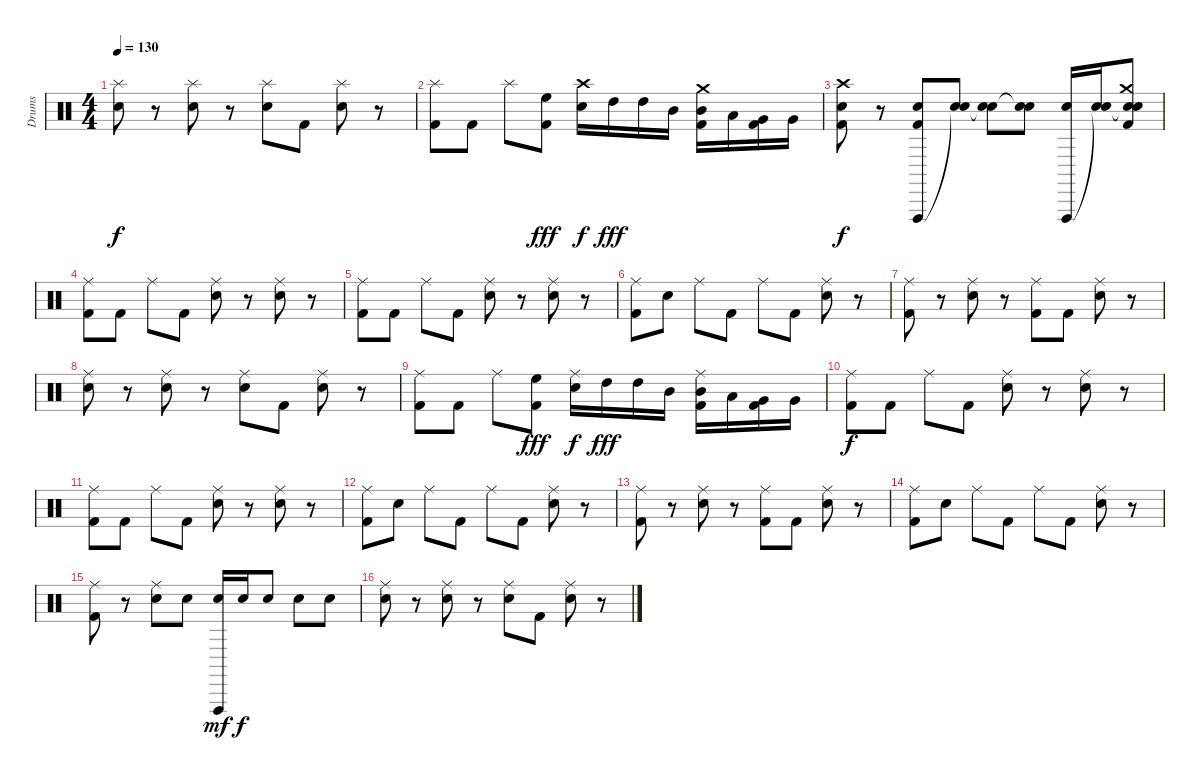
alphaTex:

\track ("Drums" "Drums") {instrument percussion}
\staff {score}
\articulation defaults
\ts (4 4)
\tempo 130
\clef neutral
\ks c
("Splash (hit)" "Snare (hit) 2").8{dy f} r.8 ("Splash (hit)" "Snare (hit) 2").8 r.8 ("Splash (hit)" "Snare (hit) 2").8 "Kick (hit) 2".8 ("Splash (hit)" "Snare (hit) 2").8 r.8 |
("Splash (hit)" "Kick (hit) 2").8 "Kick (hit) 2".8 "Splash (hit)".8 ("High Floor Tom (hit)" "Kick (hit) 2").8{dy fff} ("Crash high (hit)" "Snare (hit) 2").16{dy f} "High Tom (hit)".16{dy fff} "High Tom (hit)".16 "Mid Tom (hit)".16 ("Crash medium (hit)" "Mid Tom (hit)" "Kick (hit) 2").16 "Low Tom (hit)".16 ("Very Low Tom (hit)" "Kick (hit) 2").16 "Very Low Tom (hit)".16 |
("Crash high (hit)" "Snare (hit) 2" "Kick (hit) 2").8{dy f} r.8 ("Vibraslap (hit)" "Snare (hit) 2" "Kick (hit) 2").8 ("Snare (hit)"{t} "Snare (hit) 2").8 ("Snare (hit)"{t} "Snare (hit) 2").8 ("Snare (hit)"{t} "Snare (hit) 2").8 ("Vibraslap (hit)" "Snare (hit) 2").16 ("Snare (hit)"{t} "Snare (hit) 2").16 ("Crash medium (hit)" "Snare (hit)"{t} "Snare (hit) 2" "Kick (hit) 2").8 |
("Ride (middle)" "Kick (hit) 2").8 "Kick (hit) 2".8 "Ride (middle)".8 "Kick (hit) 2".8 ("Ride (middle)" "Snare (hit) 2").8 r.8 ("Ride (middle)" "Snare (hit) 2").8 r.8 |
("Ride (middle)" "Kick (hit) 2").8 "Kick (hit) 2".8 "Ride (middle)".8 "Kick (hit) 2".8 ("Ride (middle)" "Snare (hit) 2").8 r.8 ("Ride (middle)" "Snare (hit) 2").8 r.8 |
("Ride (middle)" "Kick (hit) 2").8 "Snare (hit) 2".8 "Ride (middle)".8 "Kick (hit) 2".8 "Ride (middle)".8 "Kick (hit) 2".8 ("Ride (middle)" "Snare (hit) 2").8 r.8 |
("Ride (middle)" "Kick (hit) 2").8 r.8 ("Ride (middle)" "Snare (hit) 2").8 r.8 ("Ride (middle)" "Kick (hit) 2").8 "Kick (hit) 2".8 ("Ride (middle)" "Snare (hit) 2").8 r.8 |
("Ride (middle)" "Snare (hit) 2").8 r.8 ("Ride (middle)" "Snare (hit) 2").8 r.8 ("Ride (middle)" "Snare (hit) 2").8 "Kick (hit) 2".8 ("Ride (middle)" "Snare (hit) 2").8 r.8 |
("Ride (middle)" "Kick (hit) 2").8 "Kick (hit) 2".8 "Ride (middle)".8 ("High Floor Tom (hit)" "Kick (hit) 2").8{dy fff} ("Ride (middle)" "Snare (hit) 2").16{dy f} "High Tom (hit)".16{dy fff} "High Tom (hit)".16 "Mid Tom (hit)".16 ("Ride (middle)" "Mid Tom (hit)" "Kick (hit) 2").16 "Low Tom (hit)".16 ("Very Low Tom (hit)" "Kick (hit) 2").16 "Very Low Tom (hit)".16 |
("Ride (middle)" "Kick (hit) 2").8{dy f} "Kick (hit) 2".8 "Ride (middle)".8 "Kick (hit) 2".8 ("Ride (middle)" "Snare (hit) 2").8 r.8 ("Ride (middle)" "Snare (hit) 2").8 r.8 |
("Ride (middle)" "Kick (hit) 2").8 "Kick (hit) 2".8 "Ride (middle)".8 "Kick (hit) 2".8 ("Ride (middle)" "Snare (hit) 2").8 r.8 ("Ride (middle)" "Snare (hit) 2").8 r.8 |
("Ride (middle)" "Kick (hit) 2").8 "Snare (hit) 2".8 "Ride (middle)".8 "Kick (hit) 2".8 "Ride (middle)".8 "Kick (hit) 2".8 ("Ride (middle)" "Snare (hit) 2").8 r.8 |
("Ride (middle)" "Kick (hit) 2").8 r.8 ("Ride (middle)" "Snare (hit) 2").8 r.8 ("Ride (middle)" "Kick (hit) 2").8 "Kick (hit) 2".8 ("Ride (middle)" "Snare (hit) 2").8 r.8 |
("Ride (middle)" "Kick (hit) 2").8 "Snare (hit) 2".8 "Ride (middle)".8 "Kick (hit) 2".8 "Ride (middle)".8 "Kick (hit) 2".8 ("Ride (middle)" "Snare (hit) 2").8 r.8 |
("Ride (middle)" "Kick (hit) 2").8 r.8 ("Ride (middle)" "Snare (hit) 2").8 "Snare (hit) 2".8 ("Vibraslap (hit)" "Snare (hit) 2").16{dy mf} "Snare (hit) 2".16{dy f} "Snare (hit) 2".8 "Snare (hit) 2".8 "Snare (hit) 2".8 |
("Ride (middle)" "Snare (hit) 2").8 r.8 ("Ride (middle)" "Snare (hit) 2").8 r.8 ("Ride (middle)" "Snare (hit) 2").8 "Kick (hit) 2".8 ("Ride (middle)" "Snare (hit) 2").8 r.8
